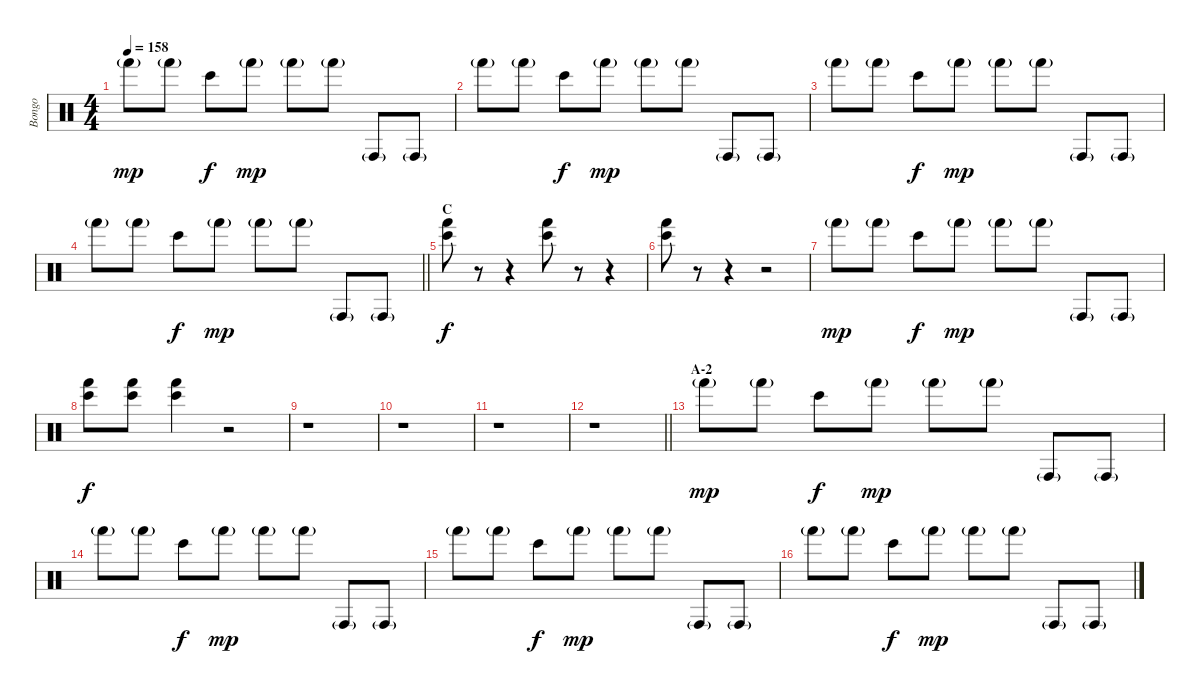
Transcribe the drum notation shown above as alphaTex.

\track ("Bongo" "Bongo") {instrument percussion}
\staff {score}
\articulation defaults
\ts (4 4)
\tempo 158
\clef neutral
\ks c "Hand (hit)"{g}.8{dy mp} "Hand (hit)"{g}.8 "Bongo High (hit)".8{dy f} "Hand (hit)"{g}.8{dy mp} "Hand (hit)"{g}.8 "Hand (hit)"{g}.8 "Conga high (hit)"{g}.8 "Conga high (hit)"{g}.8
|
"Hand (hit)"{g}.8 "Hand (hit)"{g}.8 "Bongo High (hit)".8{dy f} "Hand (hit)"{g}.8{dy mp} "Hand (hit)"{g}.8 "Hand (hit)"{g}.8 "Conga high (hit)"{g}.8 "Conga high (hit)"{g}.8 |
"Hand (hit)"{g}.8 "Hand (hit)"{g}.8 "Bongo High (hit)".8{dy f} "Hand (hit)"{g}.8{dy mp} "Hand (hit)"{g}.8 "Hand (hit)"{g}.8 "Conga high (hit)"{g}.8 "Conga high (hit)"{g}.8 |
\barLineRight lightlight "Hand (hit)"{g}.8 "Hand (hit)"{g}.8 "Bongo High (hit)".8{dy f} "Hand (hit)"{g}.8{dy mp} "Hand (hit)"{g}.8 "Hand (hit)"{g}.8 "Conga high (hit)"{g}.8 "Conga high (hit)"{g}.8
|
\section ("" "C")
("Bongo High (hit)" "Hand (hit)").8{dy f} r.8 r.4 ("Bongo High (hit)" "Hand (hit)").8 r.8 r.4 |
("Bongo High (hit)" "Hand (hit)").8 r.8 r.4 r.2 |
"Hand (hit)"{g}.8{dy mp} "Hand (hit)"{g}.8 "Bongo High (hit)".8{dy f} "Hand (hit)"{g}.8{dy mp} "Hand (hit)"{g}.8 "Hand (hit)"{g}.8 "Conga high (hit)"{g}.8 "Conga high (hit)"{g}.8 |
("Bongo High (hit)" "Hand (hit)").8{dy f} ("Bongo High (hit)" "Hand (hit)").8 ("Bongo High (hit)" "Hand (hit)").4 r.2 |
r.1 |
r.1 |
r.1 |
\barLineRight lightlight
r.1 |
\section ("" "A-2")
"Hand (hit)"{g}.8{dy mp} "Hand (hit)"{g}.8 "Bongo High (hit)".8{dy f} "Hand (hit)"{g}.8{dy mp} "Hand (hit)"{g}.8 "Hand (hit)"{g}.8 "Conga high (hit)"{g}.8 "Conga high (hit)"{g}.8 |
"Hand (hit)"{g}.8 "Hand (hit)"{g}.8 "Bongo High (hit)".8{dy f} "Hand (hit)"{g}.8{dy mp} "Hand (hit)"{g}.8 "Hand (hit)"{g}.8 "Conga high (hit)"{g}.8 "Conga high (hit)"{g}.8 |
"Hand (hit)"{g}.8 "Hand (hit)"{g}.8 "Bongo High (hit)".8{dy f} "Hand (hit)"{g}.8{dy mp} "Hand (hit)"{g}.8 "Hand (hit)"{g}.8 "Conga high (hit)"{g}.8 "Conga high (hit)"{g}.8 |
"Hand (hit)"{g}.8 "Hand (hit)"{g}.8 "Bongo High (hit)".8{dy f} "Hand (hit)"{g}.8{dy mp} "Hand (hit)"{g}.8 "Hand (hit)"{g}.8 "Conga high (hit)"{g}.8 "Conga high (hit)"{g}.8
